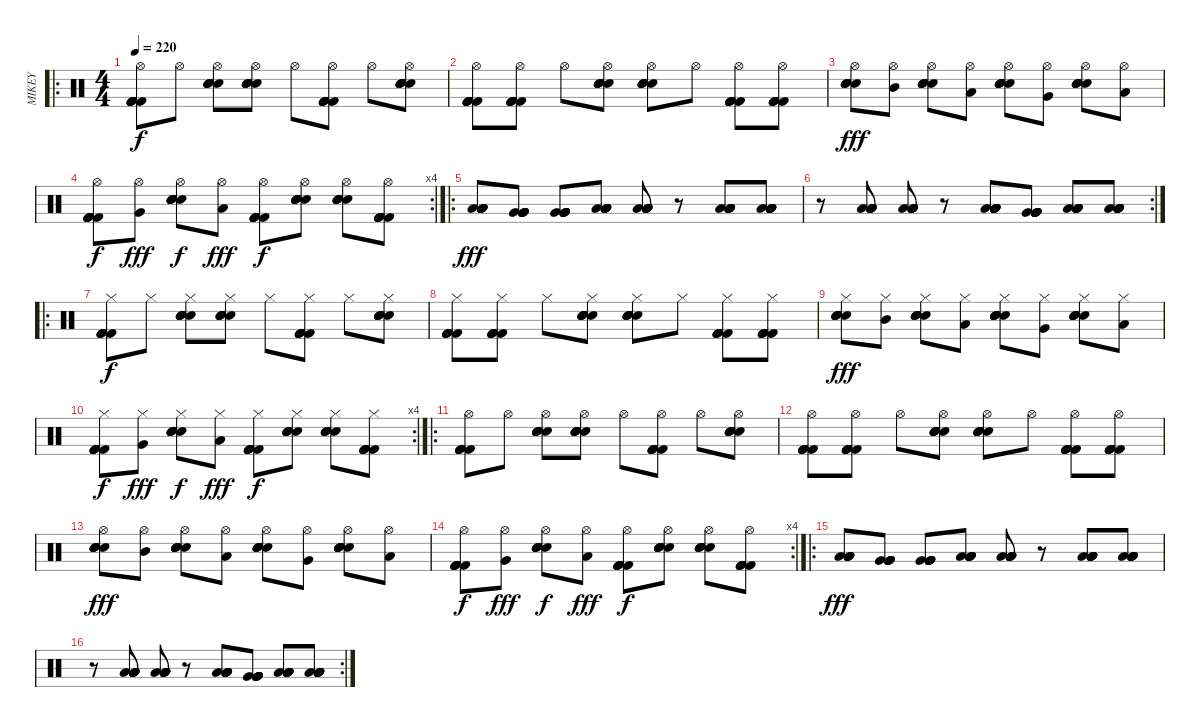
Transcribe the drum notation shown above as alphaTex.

\track ("MIKEY" "MIKEY") {instrument percussion}
\staff {score}
\articulation defaults
\ro
\ts (4 4)
\tempo 220
\clef neutral
\ks c
("Kick (hit) 2" "Kick (hit) 2" "Kick (hit) 2" "Kick (hit) 2" "Kick (hit) 2" "Hi-Hat (open)").8{dy f} "Hi-Hat (open)".8 ("Electric Snare (hit)" "Electric Snare (hit)" "Electric Snare (hit)" "Electric Snare (hit)" "Electric Snare (hit)" "Hi-Hat (open)").8 ("Electric Snare (hit)" "Electric Snare (hit)" "Electric Snare (hit)" "Electric Snare (hit)" "Electric Snare (hit)" "Hi-Hat (open)").8 "Hi-Hat (open)".8 ("Kick (hit) 2" "Kick (hit) 2" "Kick (hit) 2" "Kick (hit) 2" "Kick (hit) 2" "Hi-Hat (open)").8 "Hi-Hat (open)".8 ("Electric Snare (hit)" "Electric Snare (hit)" "Electric Snare (hit)" "Electric Snare (hit)" "Electric Snare (hit)" "Hi-Hat (open)").8 |
("Kick (hit) 2" "Kick (hit) 2" "Kick (hit) 2" "Kick (hit) 2" "Kick (hit) 2" "Hi-Hat (open)").8 ("Kick (hit) 2" "Kick (hit) 2" "Kick (hit) 2" "Kick (hit) 2" "Kick (hit) 2" "Hi-Hat (open)").8 "Hi-Hat (open)".8 ("Electric Snare (hit)" "Electric Snare (hit)" "Electric Snare (hit)" "Electric Snare (hit)" "Electric Snare (hit)" "Hi-Hat (open)").8 ("Electric Snare (hit)" "Electric Snare (hit)" "Electric Snare (hit)" "Electric Snare (hit)" "Electric Snare (hit)" "Hi-Hat (open)").8 "Hi-Hat (open)".8 ("Kick (hit) 2" "Kick (hit) 2" "Kick (hit) 2" "Kick (hit) 2" "Kick (hit) 2" "Hi-Hat (open)").8 ("Kick (hit) 2" "Kick (hit) 2" "Kick (hit) 2" "Kick (hit) 2" "Kick (hit) 2" "Hi-Hat (open)").8 |
("Electric Snare (hit)" "Electric Snare (hit)" "Electric Snare (hit)" "Electric Snare (hit)" "Electric Snare (hit)" "Hi-Hat (open)").8{dy fff} ("Mid Tom (hit)" "Hi-Hat (open)").8 ("Electric Snare (hit)" "Electric Snare (hit)" "Electric Snare (hit)" "Electric Snare (hit)" "Electric Snare (hit)" "Hi-Hat (open)").8 ("Low Tom (hit)" "Hi-Hat (open)").8 ("Electric Snare (hit)" "Electric Snare (hit)" "Electric Snare (hit)" "Electric Snare (hit)" "Electric Snare (hit)" "Hi-Hat (open)").8 ("Very Low Tom (hit)" "Hi-Hat (open)").8 ("Electric Snare (hit)" "Electric Snare (hit)" "Electric Snare (hit)" "Electric Snare (hit)" "Electric Snare (hit)" "Hi-Hat (open)").8 ("Low Floor Tom (hit)" "Hi-Hat (open)").8 |
\rc 4
("Kick (hit) 2" "Kick (hit) 2" "Kick (hit) 2" "Kick (hit) 2" "Kick (hit) 2" "Hi-Hat (open)").8{dy f} ("Very Low Tom (hit)" "Hi-Hat (open)").8{dy fff} ("Electric Snare (hit)" "Electric Snare (hit)" "Electric Snare (hit)" "Electric Snare (hit)" "Electric Snare (hit)" "Hi-Hat (open)").8{dy f} ("Low Floor Tom (hit)" "Hi-Hat (open)").8{dy fff} ("Kick (hit) 2" "Kick (hit) 2" "Kick (hit) 2" "Kick (hit) 2" "Kick (hit) 2" "Hi-Hat (open)").8{dy f} ("Electric Snare (hit)" "Electric Snare (hit)" "Electric Snare (hit)" "Electric Snare (hit)" "Electric Snare (hit)" "Hi-Hat (open)").8 ("Electric Snare (hit)" "Electric Snare (hit)" "Electric Snare (hit)" "Electric Snare (hit)" "Electric Snare (hit)" "Hi-Hat (open)").8 ("Kick (hit) 2" "Kick (hit) 2" "Kick (hit) 2" "Kick (hit) 2" "Kick (hit) 2" "Hi-Hat (open)").8 |
\ro
("Low Tom (hit)" "Low Tom (hit)" "Low Tom (hit)" "Low Tom (hit)" "Low Tom (hit)" "Low Tom (hit)").8{dy fff} ("Very Low Tom (hit)" "Very Low Tom (hit)" "Very Low Tom (hit)" "Very Low Tom (hit)" "Very Low Tom (hit)" "Very Low Tom (hit)").8 ("Very Low Tom (hit)" "Very Low Tom (hit)" "Very Low Tom (hit)" "Very Low Tom (hit)" "Very Low Tom (hit)" "Very Low Tom (hit)").8 ("Low Tom (hit)" "Low Tom (hit)" "Low Tom (hit)" "Low Tom (hit)" "Low Tom (hit)" "Low Tom (hit)").8 ("Low Floor Tom (hit)" "Low Floor Tom (hit)" "Low Floor Tom (hit)" "Low Floor Tom (hit)" "Low Floor Tom (hit)" "Low Floor Tom (hit)").8 r.8 ("Low Tom (hit)" "Low Tom (hit)" "Low Tom (hit)" "Low Tom (hit)" "Low Tom (hit)" "Low Tom (hit)").8 ("Low Floor Tom (hit)" "Low Floor Tom (hit)" "Low Floor Tom (hit)" "Low Floor Tom (hit)" "Low Floor Tom (hit)" "Low Floor Tom (hit)").8 |
\rc 2
r.8 ("Low Tom (hit)" "Low Tom (hit)" "Low Tom (hit)" "Low Tom (hit)" "Low Tom (hit)" "Low Tom (hit)").8 ("Low Floor Tom (hit)" "Low Floor Tom (hit)" "Low Floor Tom (hit)" "Low Floor Tom (hit)" "Low Floor Tom (hit)" "Low Floor Tom (hit)").8 r.8 ("Low Tom (hit)" "Low Tom (hit)" "Low Tom (hit)" "Low Tom (hit)" "Low Tom (hit)" "Low Tom (hit)").8 ("Very Low Tom (hit)" "Very Low Tom (hit)" "Very Low Tom (hit)" "Very Low Tom (hit)" "Very Low Tom (hit)" "Very Low Tom (hit)").8 ("Low Tom (hit)" "Low Tom (hit)" "Low Tom (hit)" "Low Tom (hit)" "Low Tom (hit)" "Low Tom (hit)").8 ("Low Floor Tom (hit)" "Low Floor Tom (hit)" "Low Floor Tom (hit)" "Low Floor Tom (hit)" "Low Floor Tom (hit)" "Low Floor Tom (hit)").8 |
\ro
("Kick (hit) 2" "Kick (hit) 2" "Kick (hit) 2" "Kick (hit) 2" "Kick (hit) 2" "Hi-Hat (closed)").8{dy f} "Hi-Hat (closed)".8 ("Electric Snare (hit)" "Electric Snare (hit)" "Electric Snare (hit)" "Electric Snare (hit)" "Electric Snare (hit)" "Hi-Hat (closed)").8 ("Electric Snare (hit)" "Electric Snare (hit)" "Electric Snare (hit)" "Electric Snare (hit)" "Electric Snare (hit)" "Hi-Hat (closed)").8 "Hi-Hat (closed)".8 ("Kick (hit) 2" "Kick (hit) 2" "Kick (hit) 2" "Kick (hit) 2" "Kick (hit) 2" "Hi-Hat (closed)").8 "Hi-Hat (closed)".8 ("Electric Snare (hit)" "Electric Snare (hit)" "Electric Snare (hit)" "Electric Snare (hit)" "Electric Snare (hit)" "Hi-Hat (closed)").8 |
("Kick (hit) 2" "Kick (hit) 2" "Kick (hit) 2" "Kick (hit) 2" "Kick (hit) 2" "Hi-Hat (closed)").8 ("Kick (hit) 2" "Kick (hit) 2" "Kick (hit) 2" "Kick (hit) 2" "Kick (hit) 2" "Hi-Hat (closed)").8 "Hi-Hat (closed)".8 ("Electric Snare (hit)" "Electric Snare (hit)" "Electric Snare (hit)" "Electric Snare (hit)" "Electric Snare (hit)" "Hi-Hat (closed)").8 ("Electric Snare (hit)" "Electric Snare (hit)" "Electric Snare (hit)" "Electric Snare (hit)" "Electric Snare (hit)" "Hi-Hat (closed)").8 "Hi-Hat (closed)".8 ("Kick (hit) 2" "Kick (hit) 2" "Kick (hit) 2" "Kick (hit) 2" "Kick (hit) 2" "Hi-Hat (closed)").8 ("Kick (hit) 2" "Kick (hit) 2" "Kick (hit) 2" "Kick (hit) 2" "Kick (hit) 2" "Hi-Hat (closed)").8 |
("Electric Snare (hit)" "Electric Snare (hit)" "Electric Snare (hit)" "Electric Snare (hit)" "Electric Snare (hit)" "Hi-Hat (closed)").8{dy fff} ("Mid Tom (hit)" "Hi-Hat (closed)").8 ("Electric Snare (hit)" "Electric Snare (hit)" "Electric Snare (hit)" "Electric Snare (hit)" "Electric Snare (hit)" "Hi-Hat (closed)").8 ("Low Tom (hit)" "Hi-Hat (closed)").8 ("Electric Snare (hit)" "Electric Snare (hit)" "Electric Snare (hit)" "Electric Snare (hit)" "Electric Snare (hit)" "Hi-Hat (closed)").8 ("Very Low Tom (hit)" "Hi-Hat (closed)").8 ("Electric Snare (hit)" "Electric Snare (hit)" "Electric Snare (hit)" "Electric Snare (hit)" "Electric Snare (hit)" "Hi-Hat (closed)").8 ("Low Floor Tom (hit)" "Hi-Hat (closed)").8 |
\rc 4
("Kick (hit) 2" "Kick (hit) 2" "Kick (hit) 2" "Kick (hit) 2" "Kick (hit) 2" "Hi-Hat (closed)").8{dy f} ("Very Low Tom (hit)" "Hi-Hat (closed)").8{dy fff} ("Electric Snare (hit)" "Electric Snare (hit)" "Electric Snare (hit)" "Electric Snare (hit)" "Electric Snare (hit)" "Hi-Hat (closed)").8{dy f} ("Low Floor Tom (hit)" "Hi-Hat (closed)").8{dy fff} ("Kick (hit) 2" "Kick (hit) 2" "Kick (hit) 2" "Kick (hit) 2" "Kick (hit) 2" "Hi-Hat (closed)").8{dy f} ("Electric Snare (hit)" "Electric Snare (hit)" "Electric Snare (hit)" "Electric Snare (hit)" "Electric Snare (hit)" "Hi-Hat (closed)").8 ("Electric Snare (hit)" "Electric Snare (hit)" "Electric Snare (hit)" "Electric Snare (hit)" "Electric Snare (hit)" "Hi-Hat (closed)").8 ("Kick (hit) 2" "Kick (hit) 2" "Kick (hit) 2" "Kick (hit) 2" "Kick (hit) 2" "Hi-Hat (closed)").8 |
\ro
("Kick (hit) 2" "Kick (hit) 2" "Kick (hit) 2" "Kick (hit) 2" "Kick (hit) 2" "Hi-Hat (open)").8 "Hi-Hat (open)".8 ("Electric Snare (hit)" "Electric Snare (hit)" "Electric Snare (hit)" "Electric Snare (hit)" "Electric Snare (hit)" "Hi-Hat (open)").8 ("Electric Snare (hit)" "Electric Snare (hit)" "Electric Snare (hit)" "Electric Snare (hit)" "Electric Snare (hit)" "Hi-Hat (open)").8 "Hi-Hat (open)".8 ("Kick (hit) 2" "Kick (hit) 2" "Kick (hit) 2" "Kick (hit) 2" "Kick (hit) 2" "Hi-Hat (open)").8 "Hi-Hat (open)".8 ("Electric Snare (hit)" "Electric Snare (hit)" "Electric Snare (hit)" "Electric Snare (hit)" "Electric Snare (hit)" "Hi-Hat (open)").8 |
("Kick (hit) 2" "Kick (hit) 2" "Kick (hit) 2" "Kick (hit) 2" "Kick (hit) 2" "Hi-Hat (open)").8 ("Kick (hit) 2" "Kick (hit) 2" "Kick (hit) 2" "Kick (hit) 2" "Kick (hit) 2" "Hi-Hat (open)").8 "Hi-Hat (open)".8 ("Electric Snare (hit)" "Electric Snare (hit)" "Electric Snare (hit)" "Electric Snare (hit)" "Electric Snare (hit)" "Hi-Hat (open)").8 ("Electric Snare (hit)" "Electric Snare (hit)" "Electric Snare (hit)" "Electric Snare (hit)" "Electric Snare (hit)" "Hi-Hat (open)").8 "Hi-Hat (open)".8 ("Kick (hit) 2" "Kick (hit) 2" "Kick (hit) 2" "Kick (hit) 2" "Kick (hit) 2" "Hi-Hat (open)").8 ("Kick (hit) 2" "Kick (hit) 2" "Kick (hit) 2" "Kick (hit) 2" "Kick (hit) 2" "Hi-Hat (open)").8 |
("Electric Snare (hit)" "Electric Snare (hit)" "Electric Snare (hit)" "Electric Snare (hit)" "Electric Snare (hit)" "Hi-Hat (open)").8{dy fff} ("Mid Tom (hit)" "Hi-Hat (open)").8 ("Electric Snare (hit)" "Electric Snare (hit)" "Electric Snare (hit)" "Electric Snare (hit)" "Electric Snare (hit)" "Hi-Hat (open)").8 ("Low Tom (hit)" "Hi-Hat (open)").8 ("Electric Snare (hit)" "Electric Snare (hit)" "Electric Snare (hit)" "Electric Snare (hit)" "Electric Snare (hit)" "Hi-Hat (open)").8 ("Very Low Tom (hit)" "Hi-Hat (open)").8 ("Electric Snare (hit)" "Electric Snare (hit)" "Electric Snare (hit)" "Electric Snare (hit)" "Electric Snare (hit)" "Hi-Hat (open)").8 ("Low Floor Tom (hit)" "Hi-Hat (open)").8 |
\rc 4
("Kick (hit) 2" "Kick (hit) 2" "Kick (hit) 2" "Kick (hit) 2" "Kick (hit) 2" "Hi-Hat (open)").8{dy f} ("Very Low Tom (hit)" "Hi-Hat (open)").8{dy fff} ("Electric Snare (hit)" "Electric Snare (hit)" "Electric Snare (hit)" "Electric Snare (hit)" "Electric Snare (hit)" "Hi-Hat (open)").8{dy f} ("Low Floor Tom (hit)" "Hi-Hat (open)").8{dy fff} ("Kick (hit) 2" "Kick (hit) 2" "Kick (hit) 2" "Kick (hit) 2" "Kick (hit) 2" "Hi-Hat (open)").8{dy f} ("Electric Snare (hit)" "Electric Snare (hit)" "Electric Snare (hit)" "Electric Snare (hit)" "Electric Snare (hit)" "Hi-Hat (open)").8 ("Electric Snare (hit)" "Electric Snare (hit)" "Electric Snare (hit)" "Electric Snare (hit)" "Electric Snare (hit)" "Hi-Hat (open)").8 ("Kick (hit) 2" "Kick (hit) 2" "Kick (hit) 2" "Kick (hit) 2" "Kick (hit) 2" "Hi-Hat (open)").8 |
\ro
("Low Tom (hit)" "Low Tom (hit)" "Low Tom (hit)" "Low Tom (hit)" "Low Tom (hit)" "Low Tom (hit)").8{dy fff} ("Very Low Tom (hit)" "Very Low Tom (hit)" "Very Low Tom (hit)" "Very Low Tom (hit)" "Very Low Tom (hit)" "Very Low Tom (hit)").8 ("Very Low Tom (hit)" "Very Low Tom (hit)" "Very Low Tom (hit)" "Very Low Tom (hit)" "Very Low Tom (hit)" "Very Low Tom (hit)").8 ("Low Tom (hit)" "Low Tom (hit)" "Low Tom (hit)" "Low Tom (hit)" "Low Tom (hit)" "Low Tom (hit)").8 ("Low Floor Tom (hit)" "Low Floor Tom (hit)" "Low Floor Tom (hit)" "Low Floor Tom (hit)" "Low Floor Tom (hit)" "Low Floor Tom (hit)").8 r.8 ("Low Tom (hit)" "Low Tom (hit)" "Low Tom (hit)" "Low Tom (hit)" "Low Tom (hit)" "Low Tom (hit)").8 ("Low Floor Tom (hit)" "Low Floor Tom (hit)" "Low Floor Tom (hit)" "Low Floor Tom (hit)" "Low Floor Tom (hit)" "Low Floor Tom (hit)").8 |
\rc 2
r.8 ("Low Tom (hit)" "Low Tom (hit)" "Low Tom (hit)" "Low Tom (hit)" "Low Tom (hit)" "Low Tom (hit)").8 ("Low Floor Tom (hit)" "Low Floor Tom (hit)" "Low Floor Tom (hit)" "Low Floor Tom (hit)" "Low Floor Tom (hit)" "Low Floor Tom (hit)").8 r.8 ("Low Tom (hit)" "Low Tom (hit)" "Low Tom (hit)" "Low Tom (hit)" "Low Tom (hit)" "Low Tom (hit)").8 ("Very Low Tom (hit)" "Very Low Tom (hit)" "Very Low Tom (hit)" "Very Low Tom (hit)" "Very Low Tom (hit)" "Very Low Tom (hit)").8 ("Low Tom (hit)" "Low Tom (hit)" "Low Tom (hit)" "Low Tom (hit)" "Low Tom (hit)" "Low Tom (hit)").8 ("Low Floor Tom (hit)" "Low Floor Tom (hit)" "Low Floor Tom (hit)" "Low Floor Tom (hit)" "Low Floor Tom (hit)" "Low Floor Tom (hit)").8
